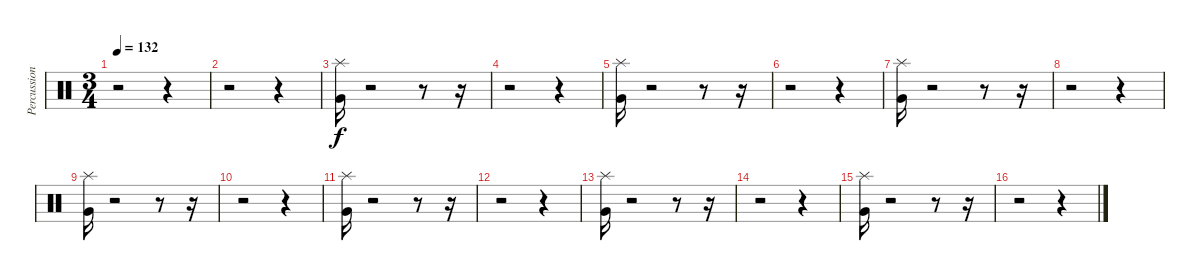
\track ("Percussion" "Percussion") {instrument percussion}
\staff {score}
\articulation defaults
\ts (3 4)
\tempo 132
\clef neutral
\ks c
r.2{dy f} r.4 |
r.2 r.4 |
("Very Low Tom (hit)" "Splash (hit)").16 r.2 r.8 r.16 |
r.2 r.4 |
("Very Low Tom (hit)" "Splash (hit)").16 r.2 r.8 r.16 |
r.2 r.4 |
("Very Low Tom (hit)" "Splash (hit)").16 r.2 r.8 r.16 |
r.2 r.4 |
("Very Low Tom (hit)" "Splash (hit)").16 r.2 r.8 r.16 |
r.2 r.4 |
("Very Low Tom (hit)" "Splash (hit)").16 r.2 r.8 r.16 |
r.2 r.4 |
("Very Low Tom (hit)" "Splash (hit)").16 r.2 r.8 r.16 |
r.2 r.4 |
("Very Low Tom (hit)" "Splash (hit)").16 r.2 r.8 r.16 |
r.2 r.4
